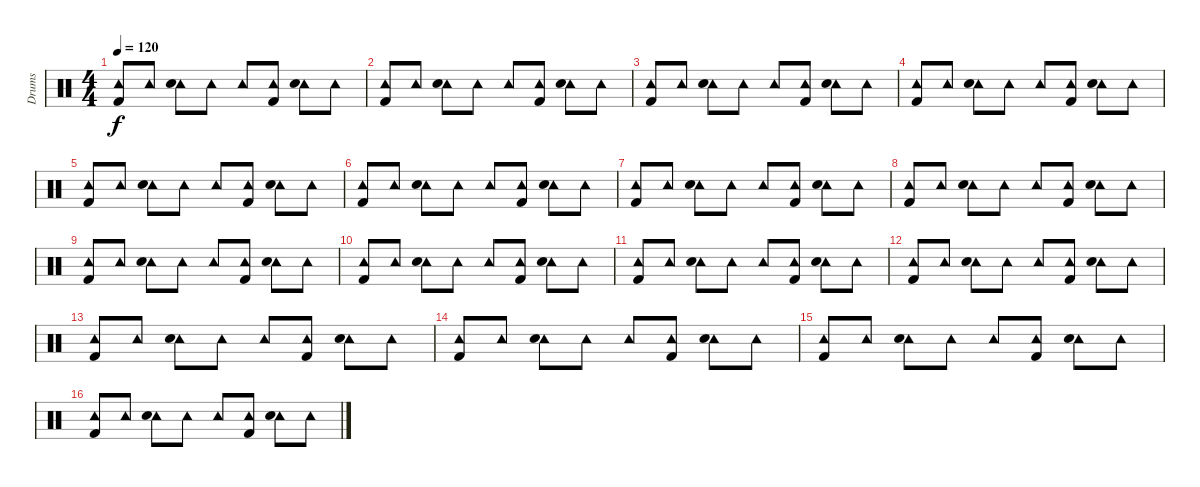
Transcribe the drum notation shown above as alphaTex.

\track ("Drums" "Drums") {instrument percussion}
\staff {score}
\articulation defaults
\ts (4 4)
\tempo 120
\clef neutral
\ks c
("Tambourine (hit)" "Kick (hit) 2").8{dy f} "Tambourine (hit)".8 ("Tambourine (hit)" "Hand Clap (hit)").8 "Tambourine (hit)".8 "Tambourine (hit)".8 ("Tambourine (hit)" "Kick (hit) 2").8 ("Tambourine (hit)" "Hand Clap (hit)").8 "Tambourine (hit)".8 |
("Tambourine (hit)" "Kick (hit) 2").8 "Tambourine (hit)".8 ("Tambourine (hit)" "Hand Clap (hit)").8 "Tambourine (hit)".8 "Tambourine (hit)".8 ("Tambourine (hit)" "Kick (hit) 2").8 ("Tambourine (hit)" "Hand Clap (hit)").8 "Tambourine (hit)".8 |
("Tambourine (hit)" "Kick (hit) 2").8 "Tambourine (hit)".8 ("Tambourine (hit)" "Hand Clap (hit)").8 "Tambourine (hit)".8 "Tambourine (hit)".8 ("Tambourine (hit)" "Kick (hit) 2").8 ("Tambourine (hit)" "Hand Clap (hit)").8 "Tambourine (hit)".8 |
("Tambourine (hit)" "Kick (hit) 2").8 "Tambourine (hit)".8 ("Tambourine (hit)" "Hand Clap (hit)").8 "Tambourine (hit)".8 "Tambourine (hit)".8 ("Tambourine (hit)" "Kick (hit) 2").8 ("Tambourine (hit)" "Hand Clap (hit)").8 "Tambourine (hit)".8 |
("Tambourine (hit)" "Kick (hit) 2").8 "Tambourine (hit)".8 ("Tambourine (hit)" "Hand Clap (hit)").8 "Tambourine (hit)".8 "Tambourine (hit)".8 ("Tambourine (hit)" "Kick (hit) 2").8 ("Tambourine (hit)" "Hand Clap (hit)").8 "Tambourine (hit)".8 |
("Tambourine (hit)" "Kick (hit) 2").8 "Tambourine (hit)".8 ("Tambourine (hit)" "Hand Clap (hit)").8 "Tambourine (hit)".8 "Tambourine (hit)".8 ("Tambourine (hit)" "Kick (hit) 2").8 ("Tambourine (hit)" "Hand Clap (hit)").8 "Tambourine (hit)".8 |
("Tambourine (hit)" "Kick (hit) 2").8 "Tambourine (hit)".8 ("Tambourine (hit)" "Hand Clap (hit)").8 "Tambourine (hit)".8 "Tambourine (hit)".8 ("Tambourine (hit)" "Kick (hit) 2").8 ("Tambourine (hit)" "Hand Clap (hit)").8 "Tambourine (hit)".8 |
("Tambourine (hit)" "Kick (hit) 2").8 "Tambourine (hit)".8 ("Tambourine (hit)" "Hand Clap (hit)").8 "Tambourine (hit)".8 "Tambourine (hit)".8 ("Tambourine (hit)" "Kick (hit) 2").8 ("Tambourine (hit)" "Hand Clap (hit)").8 "Tambourine (hit)".8 |
("Tambourine (hit)" "Kick (hit) 2").8 "Tambourine (hit)".8 ("Tambourine (hit)" "Hand Clap (hit)").8 "Tambourine (hit)".8 "Tambourine (hit)".8 ("Tambourine (hit)" "Kick (hit) 2").8 ("Tambourine (hit)" "Hand Clap (hit)").8 "Tambourine (hit)".8 |
("Tambourine (hit)" "Kick (hit) 2").8 "Tambourine (hit)".8 ("Tambourine (hit)" "Hand Clap (hit)").8 "Tambourine (hit)".8 "Tambourine (hit)".8 ("Tambourine (hit)" "Kick (hit) 2").8 ("Tambourine (hit)" "Hand Clap (hit)").8 "Tambourine (hit)".8 |
("Tambourine (hit)" "Kick (hit) 2").8 "Tambourine (hit)".8 ("Tambourine (hit)" "Hand Clap (hit)").8 "Tambourine (hit)".8 "Tambourine (hit)".8 ("Tambourine (hit)" "Kick (hit) 2").8 ("Tambourine (hit)" "Hand Clap (hit)").8 "Tambourine (hit)".8 |
("Tambourine (hit)" "Kick (hit) 2").8 "Tambourine (hit)".8 ("Tambourine (hit)" "Hand Clap (hit)").8 "Tambourine (hit)".8 "Tambourine (hit)".8 ("Tambourine (hit)" "Kick (hit) 2").8 ("Tambourine (hit)" "Hand Clap (hit)").8 "Tambourine (hit)".8 |
("Tambourine (hit)" "Kick (hit) 2").8 "Tambourine (hit)".8 ("Tambourine (hit)" "Hand Clap (hit)").8 "Tambourine (hit)".8 "Tambourine (hit)".8 ("Tambourine (hit)" "Kick (hit) 2").8 ("Tambourine (hit)" "Hand Clap (hit)").8 "Tambourine (hit)".8 |
("Tambourine (hit)" "Kick (hit) 2").8 "Tambourine (hit)".8 ("Tambourine (hit)" "Hand Clap (hit)").8 "Tambourine (hit)".8 "Tambourine (hit)".8 ("Tambourine (hit)" "Kick (hit) 2").8 ("Tambourine (hit)" "Hand Clap (hit)").8 "Tambourine (hit)".8 |
("Tambourine (hit)" "Kick (hit) 2").8 "Tambourine (hit)".8 ("Tambourine (hit)" "Hand Clap (hit)").8 "Tambourine (hit)".8 "Tambourine (hit)".8 ("Tambourine (hit)" "Kick (hit) 2").8 ("Tambourine (hit)" "Hand Clap (hit)").8 "Tambourine (hit)".8 |
("Tambourine (hit)" "Kick (hit) 2").8 "Tambourine (hit)".8 ("Tambourine (hit)" "Hand Clap (hit)").8 "Tambourine (hit)".8 "Tambourine (hit)".8 ("Tambourine (hit)" "Kick (hit) 2").8 ("Tambourine (hit)" "Hand Clap (hit)").8 "Tambourine (hit)".8
